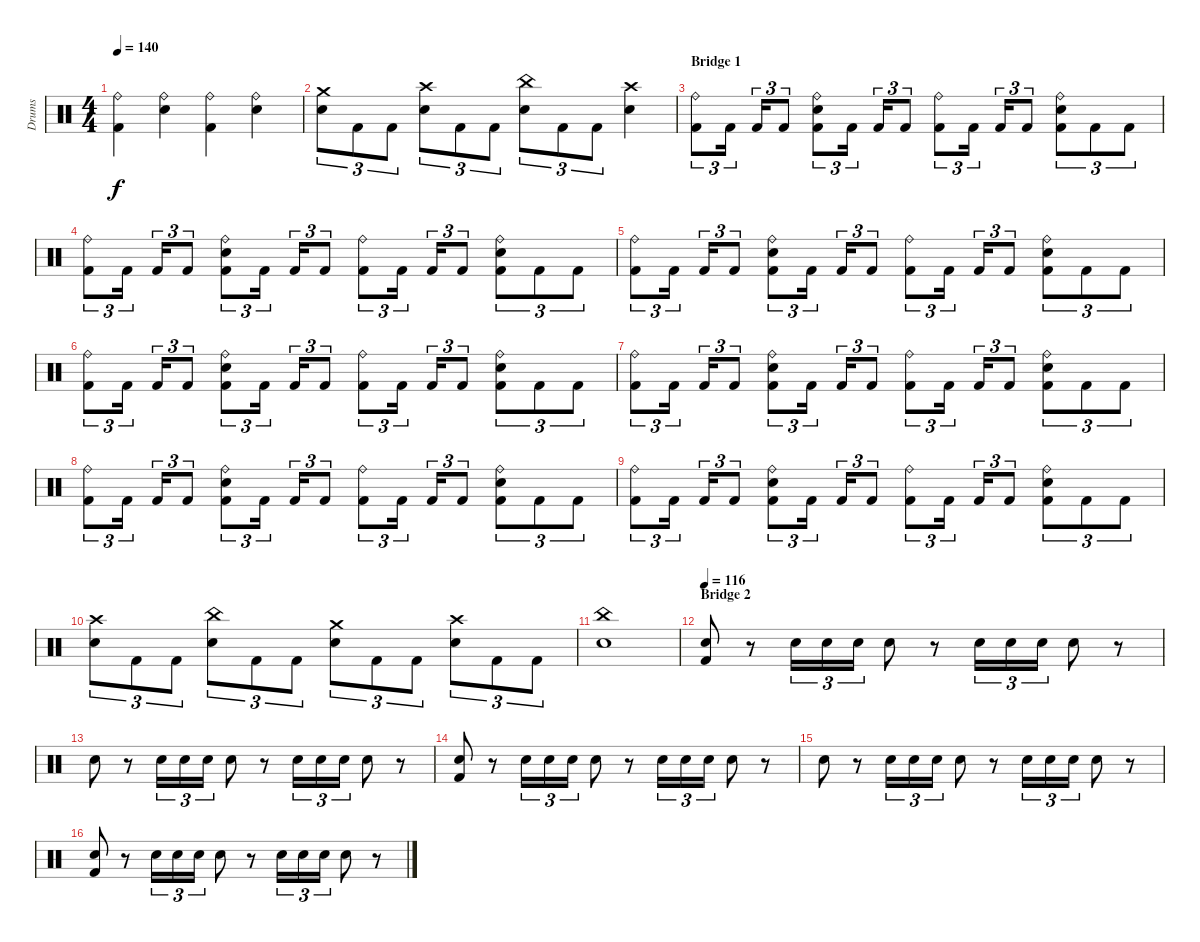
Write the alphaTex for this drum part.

\track ("Drums" "Drums") {instrument percussion}
\staff {score}
\articulation defaults
\ts (4 4)
\tempo 140
\clef neutral
\ks c
("Ride (bell)" "Kick (hit) 2").4{dy f} ("Ride (bell)" "Electric Snare (hit)").4 ("Ride (bell)" "Kick (hit) 2").4 ("Ride (bell)" "Electric Snare (hit)").4 |
("Crash medium (hit)" "Electric Snare (hit)").8{tu (3 2)} "Kick (hit) 2".8{tu (3 2)} "Kick (hit) 2".8{tu (3 2)} ("Crash high (hit)" "Electric Snare (hit)").8{tu (3 2)} "Kick (hit) 2".8{tu (3 2)} "Kick (hit) 2".8{tu (3 2)} ("China (hit)" "Electric Snare (hit)").8{tu (3 2)} "Kick (hit) 2".8{tu (3 2)} "Kick (hit) 2".8{tu (3 2)} ("Crash high (hit)" "Electric Snare (hit)").4 |
\section ("" "Bridge 1")
("Ride (bell)" "Kick (hit) 2").8{tu (3 2)} "Kick (hit) 2".16{tu (3 2)} "Kick (hit) 2".16{tu (3 2)} "Kick (hit) 2".8{tu (3 2)} ("Ride (bell)" "Electric Snare (hit)" "Kick (hit) 2").8{tu (3 2)} "Kick (hit) 2".16{tu (3 2)} "Kick (hit) 2".16{tu (3 2)} "Kick (hit) 2".8{tu (3 2)} ("Ride (bell)" "Kick (hit) 2").8{tu (3 2)} "Kick (hit) 2".16{tu (3 2)} "Kick (hit) 2".16{tu (3 2)} "Kick (hit) 2".8{tu (3 2)} ("Ride (bell)" "Electric Snare (hit)" "Kick (hit) 2").8{tu (3 2)} "Kick (hit) 2".8{tu (3 2)} "Kick (hit) 2".8{tu (3 2)} |
("Ride (bell)" "Kick (hit) 2").8{tu (3 2)} "Kick (hit) 2".16{tu (3 2)} "Kick (hit) 2".16{tu (3 2)} "Kick (hit) 2".8{tu (3 2)} ("Ride (bell)" "Electric Snare (hit)" "Kick (hit) 2").8{tu (3 2)} "Kick (hit) 2".16{tu (3 2)} "Kick (hit) 2".16{tu (3 2)} "Kick (hit) 2".8{tu (3 2)} ("Ride (bell)" "Kick (hit) 2").8{tu (3 2)} "Kick (hit) 2".16{tu (3 2)} "Kick (hit) 2".16{tu (3 2)} "Kick (hit) 2".8{tu (3 2)} ("Ride (bell)" "Electric Snare (hit)" "Kick (hit) 2").8{tu (3 2)} "Kick (hit) 2".8{tu (3 2)} "Kick (hit) 2".8{tu (3 2)} |
("Ride (bell)" "Kick (hit) 2").8{tu (3 2)} "Kick (hit) 2".16{tu (3 2)} "Kick (hit) 2".16{tu (3 2)} "Kick (hit) 2".8{tu (3 2)} ("Ride (bell)" "Electric Snare (hit)" "Kick (hit) 2").8{tu (3 2)} "Kick (hit) 2".16{tu (3 2)} "Kick (hit) 2".16{tu (3 2)} "Kick (hit) 2".8{tu (3 2)} ("Ride (bell)" "Kick (hit) 2").8{tu (3 2)} "Kick (hit) 2".16{tu (3 2)} "Kick (hit) 2".16{tu (3 2)} "Kick (hit) 2".8{tu (3 2)} ("Ride (bell)" "Electric Snare (hit)" "Kick (hit) 2").8{tu (3 2)} "Kick (hit) 2".8{tu (3 2)} "Kick (hit) 2".8{tu (3 2)} |
("Ride (bell)" "Kick (hit) 2").8{tu (3 2)} "Kick (hit) 2".16{tu (3 2)} "Kick (hit) 2".16{tu (3 2)} "Kick (hit) 2".8{tu (3 2)} ("Ride (bell)" "Electric Snare (hit)" "Kick (hit) 2").8{tu (3 2)} "Kick (hit) 2".16{tu (3 2)} "Kick (hit) 2".16{tu (3 2)} "Kick (hit) 2".8{tu (3 2)} ("Ride (bell)" "Kick (hit) 2").8{tu (3 2)} "Kick (hit) 2".16{tu (3 2)} "Kick (hit) 2".16{tu (3 2)} "Kick (hit) 2".8{tu (3 2)} ("Ride (bell)" "Electric Snare (hit)" "Kick (hit) 2").8{tu (3 2)} "Kick (hit) 2".8{tu (3 2)} "Kick (hit) 2".8{tu (3 2)} |
("Ride (bell)" "Kick (hit) 2").8{tu (3 2)} "Kick (hit) 2".16{tu (3 2)} "Kick (hit) 2".16{tu (3 2)} "Kick (hit) 2".8{tu (3 2)} ("Ride (bell)" "Electric Snare (hit)" "Kick (hit) 2").8{tu (3 2)} "Kick (hit) 2".16{tu (3 2)} "Kick (hit) 2".16{tu (3 2)} "Kick (hit) 2".8{tu (3 2)} ("Ride (bell)" "Kick (hit) 2").8{tu (3 2)} "Kick (hit) 2".16{tu (3 2)} "Kick (hit) 2".16{tu (3 2)} "Kick (hit) 2".8{tu (3 2)} ("Ride (bell)" "Electric Snare (hit)" "Kick (hit) 2").8{tu (3 2)} "Kick (hit) 2".8{tu (3 2)} "Kick (hit) 2".8{tu (3 2)} |
("Ride (bell)" "Kick (hit) 2").8{tu (3 2)} "Kick (hit) 2".16{tu (3 2)} "Kick (hit) 2".16{tu (3 2)} "Kick (hit) 2".8{tu (3 2)} ("Ride (bell)" "Electric Snare (hit)" "Kick (hit) 2").8{tu (3 2)} "Kick (hit) 2".16{tu (3 2)} "Kick (hit) 2".16{tu (3 2)} "Kick (hit) 2".8{tu (3 2)} ("Ride (bell)" "Kick (hit) 2").8{tu (3 2)} "Kick (hit) 2".16{tu (3 2)} "Kick (hit) 2".16{tu (3 2)} "Kick (hit) 2".8{tu (3 2)} ("Ride (bell)" "Electric Snare (hit)" "Kick (hit) 2").8{tu (3 2)} "Kick (hit) 2".8{tu (3 2)} "Kick (hit) 2".8{tu (3 2)} |
("Ride (bell)" "Kick (hit) 2").8{tu (3 2)} "Kick (hit) 2".16{tu (3 2)} "Kick (hit) 2".16{tu (3 2)} "Kick (hit) 2".8{tu (3 2)} ("Ride (bell)" "Electric Snare (hit)" "Kick (hit) 2").8{tu (3 2)} "Kick (hit) 2".16{tu (3 2)} "Kick (hit) 2".16{tu (3 2)} "Kick (hit) 2".8{tu (3 2)} ("Ride (bell)" "Kick (hit) 2").8{tu (3 2)} "Kick (hit) 2".16{tu (3 2)} "Kick (hit) 2".16{tu (3 2)} "Kick (hit) 2".8{tu (3 2)} ("Ride (bell)" "Electric Snare (hit)" "Kick (hit) 2").8{tu (3 2)} "Kick (hit) 2".8{tu (3 2)} "Kick (hit) 2".8{tu (3 2)} |
("Crash high (hit)" "Electric Snare (hit)").8{tu (3 2)} "Kick (hit) 2".8{tu (3 2)} "Kick (hit) 2".8{tu (3 2)} ("China (hit)" "Electric Snare (hit)").8{tu (3 2)} "Kick (hit) 2".8{tu (3 2)} "Kick (hit) 2".8{tu (3 2)} ("Crash medium (hit)" "Electric Snare (hit)").8{tu (3 2)} "Kick (hit) 2".8{tu (3 2)} "Kick (hit) 2".8{tu (3 2)} ("Crash high (hit)" "Electric Snare (hit)").8{tu (3 2)} "Kick (hit) 2".8{tu (3 2)} "Kick (hit) 2".8{tu (3 2)} |
("China (hit)" "Electric Snare (hit)").1 |
\section ("" "Bridge 2")
\tempo 116
("Electric Snare (hit)" "Kick (hit) 2").8 r.8 "Electric Snare (hit)".16{tu (3 2)} "Electric Snare (hit)".16{tu (3 2)} "Electric Snare (hit)".16{tu (3 2)} "Electric Snare (hit)".8 r.8 "Electric Snare (hit)".16{tu (3 2)} "Electric Snare (hit)".16{tu (3 2)} "Electric Snare (hit)".16{tu (3 2)} "Electric Snare (hit)".8 r.8 |
"Electric Snare (hit)".8 r.8 "Electric Snare (hit)".16{tu (3 2)} "Electric Snare (hit)".16{tu (3 2)} "Electric Snare (hit)".16{tu (3 2)} "Electric Snare (hit)".8 r.8 "Electric Snare (hit)".16{tu (3 2)} "Electric Snare (hit)".16{tu (3 2)} "Electric Snare (hit)".16{tu (3 2)} "Electric Snare (hit)".8 r.8 |
("Electric Snare (hit)" "Kick (hit) 2").8 r.8 "Electric Snare (hit)".16{tu (3 2)} "Electric Snare (hit)".16{tu (3 2)} "Electric Snare (hit)".16{tu (3 2)} "Electric Snare (hit)".8 r.8 "Electric Snare (hit)".16{tu (3 2)} "Electric Snare (hit)".16{tu (3 2)} "Electric Snare (hit)".16{tu (3 2)} "Electric Snare (hit)".8 r.8 |
"Electric Snare (hit)".8 r.8 "Electric Snare (hit)".16{tu (3 2)} "Electric Snare (hit)".16{tu (3 2)} "Electric Snare (hit)".16{tu (3 2)} "Electric Snare (hit)".8 r.8 "Electric Snare (hit)".16{tu (3 2)} "Electric Snare (hit)".16{tu (3 2)} "Electric Snare (hit)".16{tu (3 2)} "Electric Snare (hit)".8 r.8 |
("Electric Snare (hit)" "Kick (hit) 2").8 r.8 "Electric Snare (hit)".16{tu (3 2)} "Electric Snare (hit)".16{tu (3 2)} "Electric Snare (hit)".16{tu (3 2)} "Electric Snare (hit)".8 r.8 "Electric Snare (hit)".16{tu (3 2)} "Electric Snare (hit)".16{tu (3 2)} "Electric Snare (hit)".16{tu (3 2)} "Electric Snare (hit)".8 r.8
